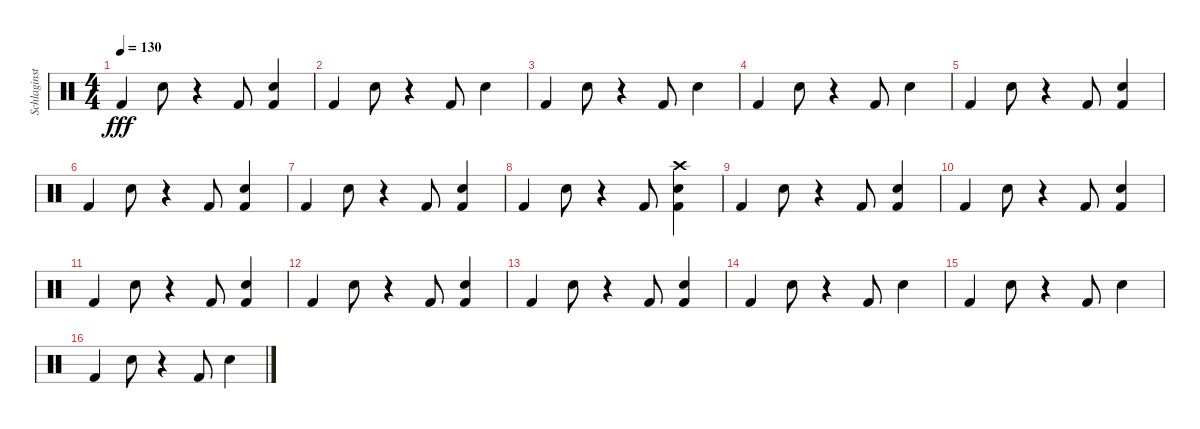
\track ("Schlaginstrumente - Auswahl" "Schlaginst") {instrument percussion}
\staff {score}
\articulation defaults
\ts (4 4)
\tempo 130
\clef neutral
\ks c "Kick (hit) 2".4{dy fff} "Snare (hit) 2".8
r.4 "Kick (hit) 2".8 ("Snare (hit) 2" "Kick (hit) 2").4 |
"Kick (hit) 2".4 "Snare (hit) 2".8 r.4 "Kick (hit) 2".8 "Snare (hit) 2".4 |
"Kick (hit) 2".4 "Snare (hit) 2".8 r.4 "Kick (hit) 2".8 "Snare (hit) 2".4 |
"Kick (hit) 2".4 "Snare (hit) 2".8 r.4 "Kick (hit) 2".8 "Snare (hit) 2".4 |
"Kick (hit) 2".4 "Snare (hit) 2".8 r.4 "Kick (hit) 2".8 ("Snare (hit) 2" "Kick (hit) 2").4 |
"Kick (hit) 2".4 "Snare (hit) 2".8 r.4 "Kick (hit) 2".8 ("Snare (hit) 2" "Kick (hit) 2").4 |
"Kick (hit) 2".4 "Snare (hit) 2".8 r.4 "Kick (hit) 2".8 ("Snare (hit) 2" "Kick (hit) 2").4 |
"Kick (hit) 2".4 "Snare (hit) 2".8 r.4 "Kick (hit) 2".8 ("Crash high (hit)" "Snare (hit) 2" "Kick (hit) 2").4 |
"Kick (hit) 2".4 "Snare (hit) 2".8 r.4 "Kick (hit) 2".8 ("Snare (hit) 2" "Kick (hit) 2").4 |
"Kick (hit) 2".4 "Snare (hit) 2".8 r.4 "Kick (hit) 2".8 ("Snare (hit) 2" "Kick (hit) 2").4 |
"Kick (hit) 2".4 "Snare (hit) 2".8 r.4 "Kick (hit) 2".8 ("Snare (hit) 2" "Kick (hit) 2").4 |
"Kick (hit) 2".4 "Snare (hit) 2".8 r.4 "Kick (hit) 2".8 ("Snare (hit) 2" "Kick (hit) 2").4 |
"Kick (hit) 2".4 "Snare (hit) 2".8 r.4 "Kick (hit) 2".8 ("Snare (hit) 2" "Kick (hit) 2").4 |
"Kick (hit) 2".4 "Snare (hit) 2".8 r.4 "Kick (hit) 2".8 "Snare (hit) 2".4 |
"Kick (hit) 2".4 "Snare (hit) 2".8 r.4 "Kick (hit) 2".8 "Snare (hit) 2".4 |
"Kick (hit) 2".4 "Snare (hit) 2".8 r.4 "Kick (hit) 2".8 "Snare (hit) 2".4
